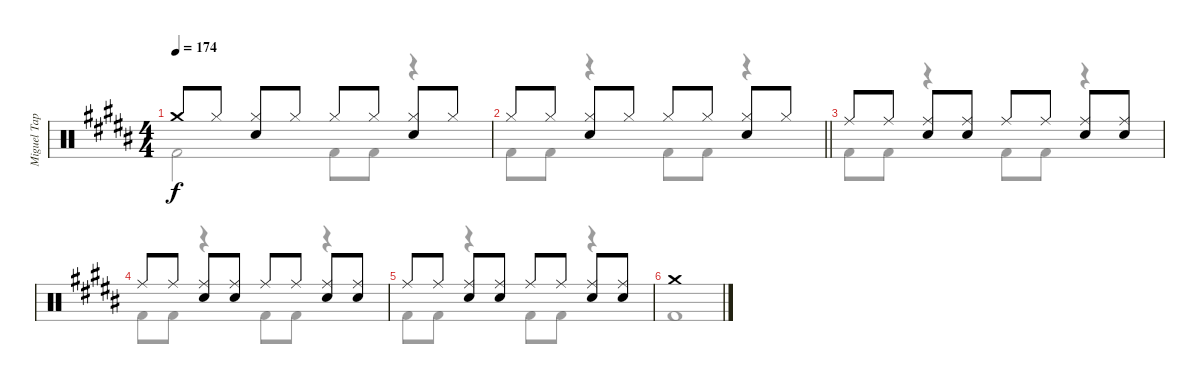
\track ("Miguel Tapia" "Miguel Tap") {instrument percussion}
\staff {score}
\articulation defaults
\voice
\ts (4 4)
\tempo 174
\clef neutral
\ks b "Crash medium (hit)".8{dy f} "Hi-Hat (closed)".8
("Hi-Hat (closed)" "Snare (hit) 2").8 "Hi-Hat (closed)".8 "Hi-Hat (closed)".8 "Hi-Hat (closed)".8 ("Hi-Hat (closed)" "Snare (hit) 2").8 "Hi-Hat (closed)".8 |
\barLineRight lightlight "Hi-Hat (closed)".8 "Hi-Hat (closed)".8
("Hi-Hat (closed)" "Snare (hit) 2").8 "Hi-Hat (closed)".8 "Hi-Hat (closed)".8 "Hi-Hat (closed)".8 ("Hi-Hat (closed)" "Snare (hit) 2").8 "Hi-Hat (closed)".8 |
"Ride (middle)".8 "Ride (middle)".8 ("Ride (middle)" "Snare (hit) 2").8 ("Ride (middle)" "Snare (hit) 2").8 "Ride (middle)".8 "Ride (middle)".8 ("Ride (middle)" "Snare (hit) 2").8 ("Ride (middle)" "Snare (hit) 2").8 |
"Ride (middle)".8 "Ride (middle)".8 ("Ride (middle)" "Snare (hit) 2").8 ("Ride (middle)" "Snare (hit) 2").8 "Ride (middle)".8 "Ride (middle)".8 ("Ride (middle)" "Snare (hit) 2").8 ("Ride (middle)" "Snare (hit) 2").8 |
"Ride (middle)".8 "Ride (middle)".8 ("Ride (middle)" "Snare (hit) 2").8 ("Ride (middle)" "Snare (hit) 2").8 "Ride (middle)".8 "Ride (middle)".8 ("Ride (middle)" "Snare (hit) 2").8 ("Ride (middle)" "Snare (hit) 2").8 |
"Crash medium (hit)".1 |
\voice
\clef neutral
\ottava regular
\simile none
\ks b "Kick (hit) 2".2{dy f} "Kick (hit) 2".8 "Kick (hit) 2".8
r.4 |
\barLineRight lightlight "Kick (hit) 2".8 "Kick (hit) 2".8
r.4 "Kick (hit) 2".8 "Kick (hit) 2".8 r.4 |
"Kick (hit) 2".8 "Kick (hit) 2".8 r.4 "Kick (hit) 2".8 "Kick (hit) 2".8 r.4 |
"Kick (hit) 2".8 "Kick (hit) 2".8 r.4 "Kick (hit) 2".8 "Kick (hit) 2".8 r.4 |
"Kick (hit) 2".8 "Kick (hit) 2".8 r.4 "Kick (hit) 2".8 "Kick (hit) 2".8 r.4 |
"Kick (hit) 2".1 |
